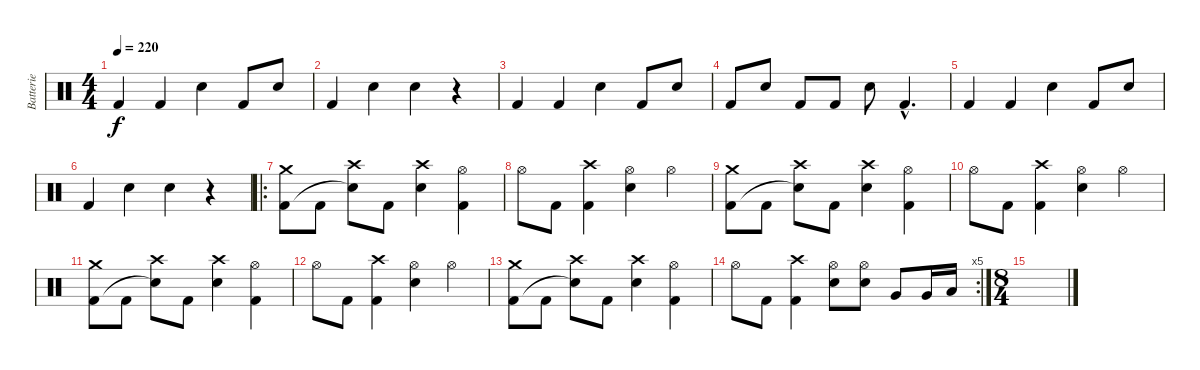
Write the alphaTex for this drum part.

\track ("Batterie" "Batterie") {instrument percussion}
\staff {score}
\articulation defaults
\ts (4 4)
\tempo 220
\clef neutral
\ks c "Kick (hit) 2".4{dy f balance 0} "Kick (hit) 2".4 "Electric Snare (hit)".4 "Kick (hit) 2".8 "Electric Snare (hit)".8
|
"Kick (hit) 2".4 "Electric Snare (hit)".4 "Electric Snare (hit)".4 r.4 |
"Kick (hit) 2".4{balance 16} "Kick (hit) 2".4 "Electric Snare (hit)".4 "Kick (hit) 2".8 "Electric Snare (hit)".8 |
"Kick (hit) 2".8{balance 0} "Electric Snare (hit)".8 "Kick (hit) 2".8 "Kick (hit) 2".8 "Electric Snare (hit)".8 "Kick (hit) 2"{hac}.4{d} |
"Kick (hit) 2".4{balance 16} "Kick (hit) 2".4 "Electric Snare (hit)".4 "Kick (hit) 2".8 "Electric Snare (hit)".8 |
"Kick (hit) 2".4{balance 0} "Electric Snare (hit)".4 "Electric Snare (hit)".4 r.4 |
\ro
("Crash medium (hit)" "Kick (hit) 2").8 "Kick (hit) 2".8 ("Crash high (hit)" "Snare (hit)"{t}).8 "Kick (hit) 2".8 ("Crash high (hit)" "Electric Snare (hit)").4 ("Hi-Hat (open)" "Kick (hit) 2").4 |
"Hi-Hat (open)".8 "Kick (hit) 2".8 ("Crash high (hit)" "Kick (hit) 2").4 ("Hi-Hat (open)" "Electric Snare (hit)").4 "Hi-Hat (open)".4 |
("Crash medium (hit)" "Kick (hit) 2").8 "Kick (hit) 2".8 ("Crash high (hit)" "Snare (hit)"{t}).8 "Kick (hit) 2".8 ("Crash high (hit)" "Electric Snare (hit)").4 ("Hi-Hat (open)" "Kick (hit) 2").4 |
"Hi-Hat (open)".8 "Kick (hit) 2".8 ("Crash high (hit)" "Kick (hit) 2").4 ("Hi-Hat (open)" "Electric Snare (hit)").4 "Hi-Hat (open)".4 |
("Crash medium (hit)" "Kick (hit) 2").8 "Kick (hit) 2".8 ("Crash high (hit)" "Snare (hit)"{t}).8 "Kick (hit) 2".8 ("Crash high (hit)" "Electric Snare (hit)").4 ("Hi-Hat (open)" "Kick (hit) 2").4 |
"Hi-Hat (open)".8 "Kick (hit) 2".8 ("Crash high (hit)" "Kick (hit) 2").4 ("Hi-Hat (open)" "Electric Snare (hit)").4 "Hi-Hat (open)".4 |
("Crash medium (hit)" "Kick (hit) 2").8 "Kick (hit) 2".8 ("Crash high (hit)" "Snare (hit)"{t}).8 "Kick (hit) 2".8 ("Crash high (hit)" "Electric Snare (hit)").4 ("Hi-Hat (open)" "Kick (hit) 2").4 |
\rc 5 "Hi-Hat (open)".8 "Kick (hit) 2".8
("Crash high (hit)" "Kick (hit) 2").4 ("Hi-Hat (open)" "Electric Snare (hit)").8 ("Hi-Hat (open)" "Electric Snare (hit)").8 "Very Low Tom (hit)".8 "Very Low Tom (hit)".16 "Low Floor Tom (hit)".16 |
\ts (8 4)
